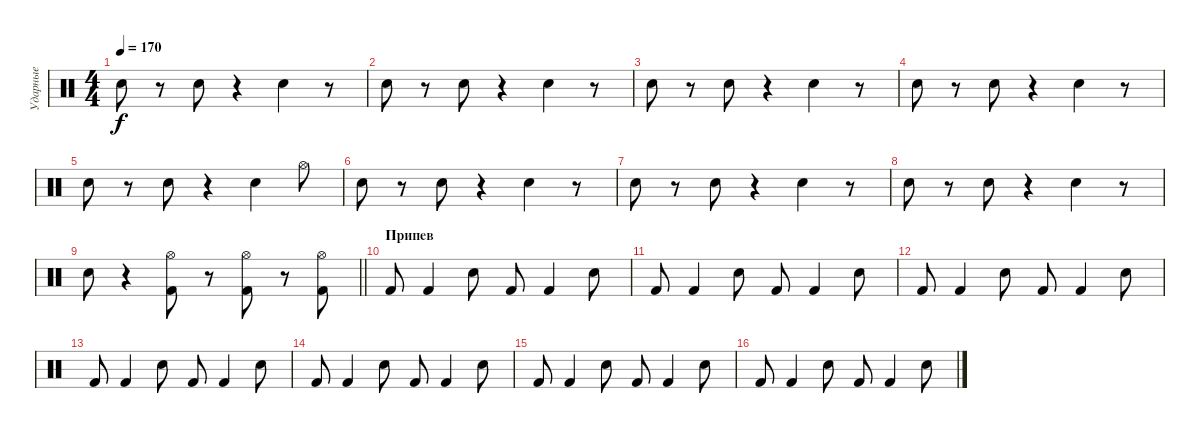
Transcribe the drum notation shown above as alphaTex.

\track ("Ударные" "Ударные") {instrument percussion}
\staff {score}
\articulation defaults
\ts (4 4)
\tempo 170
\clef neutral
\ks c "Electric Snare (hit)".8{dy f}
r.8 "Electric Snare (hit)".8 r.4 "Electric Snare (hit)".4 r.8 |
"Electric Snare (hit)".8 r.8 "Electric Snare (hit)".8 r.4 "Electric Snare (hit)".4 r.8 |
"Electric Snare (hit)".8 r.8 "Electric Snare (hit)".8 r.4 "Electric Snare (hit)".4 r.8 |
"Electric Snare (hit)".8 r.8 "Electric Snare (hit)".8 r.4 "Electric Snare (hit)".4 r.8 |
"Electric Snare (hit)".8 r.8 "Electric Snare (hit)".8 r.4 "Electric Snare (hit)".4 "Hi-Hat (open)".8 |
"Electric Snare (hit)".8 r.8 "Electric Snare (hit)".8 r.4 "Electric Snare (hit)".4 r.8 |
"Electric Snare (hit)".8 r.8 "Electric Snare (hit)".8 r.4 "Electric Snare (hit)".4 r.8 |
"Electric Snare (hit)".8 r.8 "Electric Snare (hit)".8 r.4 "Electric Snare (hit)".4 r.8 |
\barLineRight lightlight "Electric Snare (hit)".8
r.4 ("Hi-Hat (open)" "Kick (hit) 2").8 r.8 ("Hi-Hat (open)" "Kick (hit) 2").8 r.8 ("Hi-Hat (open)" "Kick (hit) 2").8 |
\section ("" "Припев")
"Kick (hit) 2".8 "Kick (hit) 2".4 "Electric Snare (hit)".8 "Kick (hit) 2".8 "Kick (hit) 2".4 "Electric Snare (hit)".8 |
"Kick (hit) 2".8 "Kick (hit) 2".4 "Electric Snare (hit)".8 "Kick (hit) 2".8 "Kick (hit) 2".4 "Electric Snare (hit)".8 |
"Kick (hit) 2".8 "Kick (hit) 2".4 "Electric Snare (hit)".8 "Kick (hit) 2".8 "Kick (hit) 2".4 "Electric Snare (hit)".8 |
"Kick (hit) 2".8 "Kick (hit) 2".4 "Electric Snare (hit)".8 "Kick (hit) 2".8 "Kick (hit) 2".4 "Electric Snare (hit)".8 |
"Kick (hit) 2".8 "Kick (hit) 2".4 "Electric Snare (hit)".8 "Kick (hit) 2".8 "Kick (hit) 2".4 "Electric Snare (hit)".8 |
"Kick (hit) 2".8 "Kick (hit) 2".4 "Electric Snare (hit)".8 "Kick (hit) 2".8 "Kick (hit) 2".4 "Electric Snare (hit)".8 |
"Kick (hit) 2".8 "Kick (hit) 2".4 "Electric Snare (hit)".8 "Kick (hit) 2".8 "Kick (hit) 2".4 "Electric Snare (hit)".8
